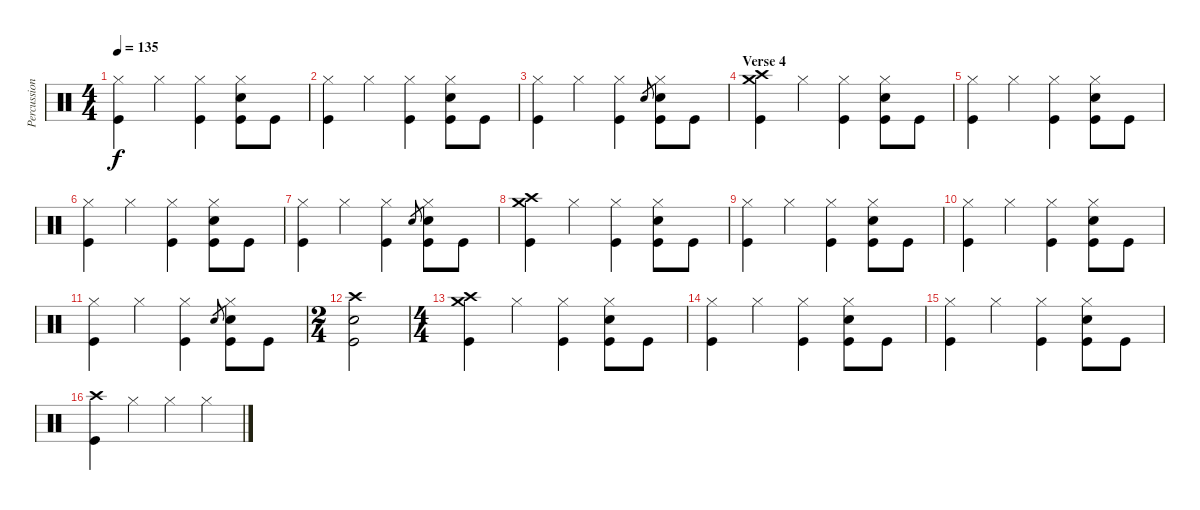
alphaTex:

\track ("Percussions" "Percussion") {instrument percussion}
\staff {score}
\articulation defaults
\ts (4 4)
\tempo 135
\clef neutral
\ks c
("Hi-Hat (closed)" "Kick (hit)").4{dy f} "Hi-Hat (closed)".4 ("Hi-Hat (closed)" "Kick (hit)").4 ("Hi-Hat (closed)" "Electric Snare (hit)" "Kick (hit)").8 "Kick (hit)".8 |
("Hi-Hat (closed)" "Kick (hit)").4 "Hi-Hat (closed)".4 ("Hi-Hat (closed)" "Kick (hit)").4 ("Hi-Hat (closed)" "Electric Snare (hit)" "Kick (hit)").8 "Kick (hit)".8 |
("Hi-Hat (closed)" "Kick (hit)").4 "Hi-Hat (closed)".4 ("Hi-Hat (closed)" "Kick (hit)").4 "Electric Snare (hit)".8{gr} ("Hi-Hat (closed)" "Electric Snare (hit)" "Kick (hit)").8 "Kick (hit)".8 |
\section ("" "Verse 4")
("Crash high (hit)" "Crash medium (hit)" "Kick (hit)").4 "Hi-Hat (closed)".4 ("Hi-Hat (closed)" "Kick (hit)").4 ("Hi-Hat (closed)" "Electric Snare (hit)" "Kick (hit)").8 "Kick (hit)".8 |
("Hi-Hat (closed)" "Kick (hit)").4 "Hi-Hat (closed)".4 ("Hi-Hat (closed)" "Kick (hit)").4 ("Hi-Hat (closed)" "Electric Snare (hit)" "Kick (hit)").8 "Kick (hit)".8 |
("Hi-Hat (closed)" "Kick (hit)").4 "Hi-Hat (closed)".4 ("Hi-Hat (closed)" "Kick (hit)").4 ("Hi-Hat (closed)" "Electric Snare (hit)" "Kick (hit)").8 "Kick (hit)".8 |
("Hi-Hat (closed)" "Kick (hit)").4 "Hi-Hat (closed)".4 ("Hi-Hat (closed)" "Kick (hit)").4 "Electric Snare (hit)".8{gr} ("Hi-Hat (closed)" "Electric Snare (hit)" "Kick (hit)").8 "Kick (hit)".8 |
("Crash high (hit)" "Crash medium (hit)" "Kick (hit)").4 "Hi-Hat (closed)".4 ("Hi-Hat (closed)" "Kick (hit)").4 ("Hi-Hat (closed)" "Electric Snare (hit)" "Kick (hit)").8 "Kick (hit)".8 |
("Hi-Hat (closed)" "Kick (hit)").4 "Hi-Hat (closed)".4 ("Hi-Hat (closed)" "Kick (hit)").4 ("Hi-Hat (closed)" "Electric Snare (hit)" "Kick (hit)").8 "Kick (hit)".8 |
("Hi-Hat (closed)" "Kick (hit)").4 "Hi-Hat (closed)".4 ("Hi-Hat (closed)" "Kick (hit)").4 ("Hi-Hat (closed)" "Electric Snare (hit)" "Kick (hit)").8 "Kick (hit)".8 |
("Hi-Hat (closed)" "Kick (hit)").4 "Hi-Hat (closed)".4 ("Hi-Hat (closed)" "Kick (hit)").4 "Electric Snare (hit)".8{gr} ("Hi-Hat (closed)" "Electric Snare (hit)" "Kick (hit)").8 "Kick (hit)".8 |
\ts (2 4)
("Crash high (hit)" "Electric Snare (hit)" "Kick (hit)").2 |
\ts (4 4)
("Crash high (hit)" "Crash medium (hit)" "Kick (hit)").4 "Hi-Hat (closed)".4 ("Hi-Hat (closed)" "Kick (hit)").4 ("Hi-Hat (closed)" "Electric Snare (hit)" "Kick (hit)").8 "Kick (hit)".8 |
("Hi-Hat (closed)" "Kick (hit)").4 "Hi-Hat (closed)".4 ("Hi-Hat (closed)" "Kick (hit)").4 ("Hi-Hat (closed)" "Electric Snare (hit)" "Kick (hit)").8 "Kick (hit)".8 |
("Hi-Hat (closed)" "Kick (hit)").4 "Hi-Hat (closed)".4 ("Hi-Hat (closed)" "Kick (hit)").4 ("Hi-Hat (closed)" "Electric Snare (hit)" "Kick (hit)").8 "Kick (hit)".8 |
("Crash high (hit)" "Kick (hit)").4 "Hi-Hat (closed)".4 "Hi-Hat (closed)".4 "Hi-Hat (closed)".4
